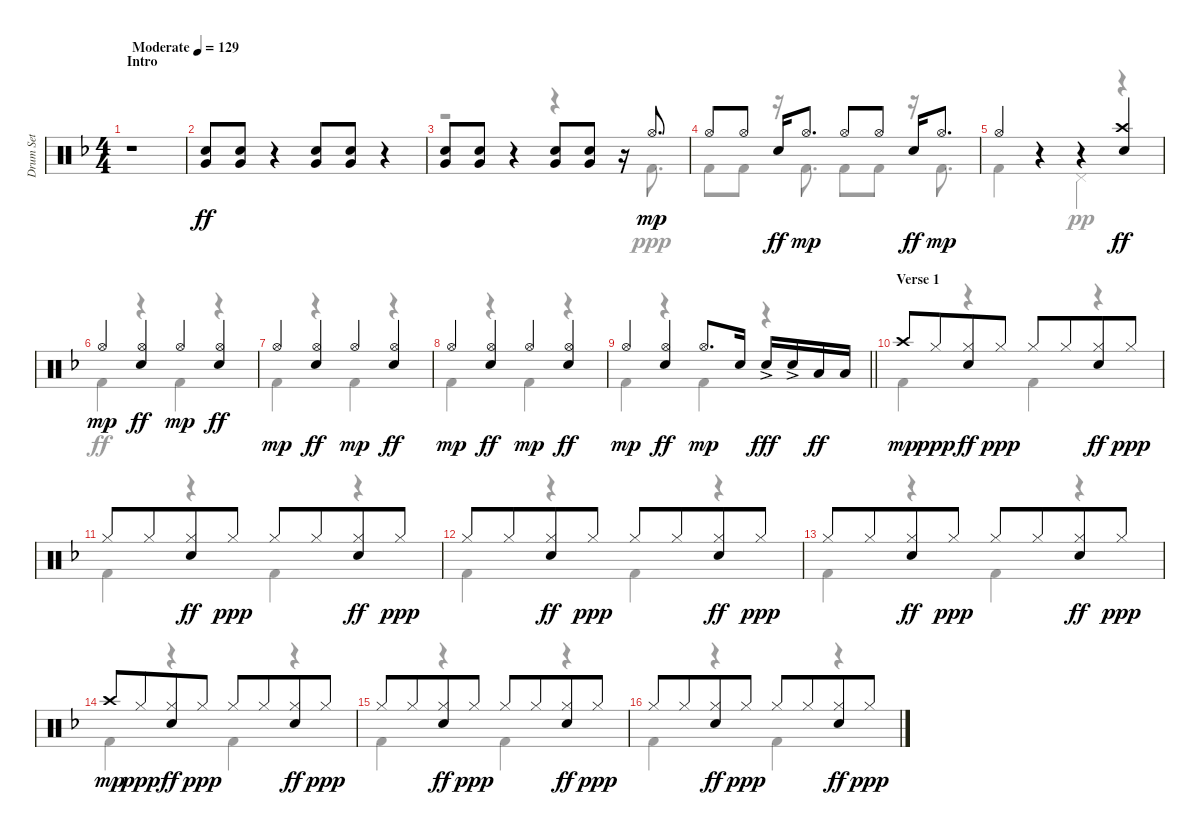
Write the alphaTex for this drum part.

\track ("Drum Set" "Drum Set") {instrument percussion}
\staff {score}
\articulation defaults
\voice
\ts (4 4)
\section ("" "Intro")
\tempo (129 "Moderate")
\clef neutral
\ks dminor
r.1{dy ff} |
("Electric Snare (hit)" "Very Low Tom (hit)").8{beam Up} ("Electric Snare (hit)" "Very Low Tom (hit)").8{beam Up} r.4 ("Electric Snare (hit)" "Very Low Tom (hit)").8{beam Up} ("Electric Snare (hit)" "Very Low Tom (hit)").8{beam Up} r.4 |
("Electric Snare (hit)" "Very Low Tom (hit)").8 ("Electric Snare (hit)" "Very Low Tom (hit)").8 r.4 ("Electric Snare (hit)" "Very Low Tom (hit)").8 ("Electric Snare (hit)" "Very Low Tom (hit)").8 r.16 "Hi-Hat (open)".8{d dy mp} |
"Hi-Hat (open)".8 "Hi-Hat (open)".8 "Electric Snare (hit)".16{dy ff} "Hi-Hat (open)".8{d dy mp} "Hi-Hat (open)".8 "Hi-Hat (open)".8 "Electric Snare (hit)".16{dy ff} "Hi-Hat (open)".8{d dy mp} |
"Hi-Hat (open)".4 r.4 r.4 ("Crash high (hit)" "Electric Snare (hit)").4{dy ff} |
"Hi-Hat (open)".4{dy mp} ("Hi-Hat (open)" "Electric Snare (hit)").4{dy ff} "Hi-Hat (open)".4{dy mp} ("Hi-Hat (open)" "Electric Snare (hit)").4{dy ff} |
"Hi-Hat (open)".4{dy mp} ("Hi-Hat (open)" "Electric Snare (hit)").4{dy ff} "Hi-Hat (open)".4{dy mp} ("Hi-Hat (open)" "Electric Snare (hit)").4{dy ff} |
"Hi-Hat (open)".4{dy mp} ("Hi-Hat (open)" "Electric Snare (hit)").4{dy ff} "Hi-Hat (open)".4{dy mp} ("Hi-Hat (open)" "Electric Snare (hit)").4{dy ff} |
\barLineRight lightlight "Hi-Hat (open)".4{dy mp}
("Hi-Hat (open)" "Electric Snare (hit)").4{dy ff} "Hi-Hat (open)".8{d dy mp} "Electric Snare (hit)".16 "Electric Snare (hit)"{ac}.16{dy fff} "Electric Snare (hit)"{ac}.16 "Low Tom (hit)".16{dy ff} "Low Tom (hit)".16 |
\section ("" "Verse 1")
"Crash high (hit)".8{dy mp} "Hi-Hat (closed)".8{dy ppp beam merge} ("Hi-Hat (closed)" "Electric Snare (hit)").8{dy ff} "Hi-Hat (closed)".8{dy ppp} "Hi-Hat (closed)".8 "Hi-Hat (closed)".8{beam merge} ("Hi-Hat (closed)" "Electric Snare (hit)").8{dy ff} "Hi-Hat (closed)".8{dy ppp} |
"Hi-Hat (closed)".8 "Hi-Hat (closed)".8{beam merge} ("Hi-Hat (closed)" "Electric Snare (hit)").8{dy ff} "Hi-Hat (closed)".8{dy ppp} "Hi-Hat (closed)".8 "Hi-Hat (closed)".8{beam merge} ("Hi-Hat (closed)" "Electric Snare (hit)").8{dy ff} "Hi-Hat (closed)".8{dy ppp} |
"Hi-Hat (closed)".8 "Hi-Hat (closed)".8{beam merge} ("Hi-Hat (closed)" "Electric Snare (hit)").8{dy ff} "Hi-Hat (closed)".8{dy ppp} "Hi-Hat (closed)".8 "Hi-Hat (closed)".8{beam merge} ("Hi-Hat (closed)" "Electric Snare (hit)").8{dy ff} "Hi-Hat (closed)".8{dy ppp} |
"Hi-Hat (closed)".8 "Hi-Hat (closed)".8{beam merge} ("Hi-Hat (closed)" "Electric Snare (hit)").8{dy ff} "Hi-Hat (closed)".8{dy ppp} "Hi-Hat (closed)".8 "Hi-Hat (closed)".8{beam merge} ("Hi-Hat (closed)" "Electric Snare (hit)").8{dy ff} "Hi-Hat (closed)".8{dy ppp} |
"Crash high (hit)".8{dy mp} "Hi-Hat (closed)".8{dy ppp beam merge} ("Hi-Hat (closed)" "Electric Snare (hit)").8{dy ff} "Hi-Hat (closed)".8{dy ppp} "Hi-Hat (closed)".8 "Hi-Hat (closed)".8{beam merge} ("Hi-Hat (closed)" "Electric Snare (hit)").8{dy ff} "Hi-Hat (closed)".8{dy ppp} |
"Hi-Hat (closed)".8 "Hi-Hat (closed)".8{beam merge} ("Hi-Hat (closed)" "Electric Snare (hit)").8{dy ff} "Hi-Hat (closed)".8{dy ppp} "Hi-Hat (closed)".8 "Hi-Hat (closed)".8{beam merge} ("Hi-Hat (closed)" "Electric Snare (hit)").8{dy ff} "Hi-Hat (closed)".8{dy ppp} |
"Hi-Hat (closed)".8 "Hi-Hat (closed)".8{beam merge} ("Hi-Hat (closed)" "Electric Snare (hit)").8{dy ff} "Hi-Hat (closed)".8{dy ppp} "Hi-Hat (closed)".8 "Hi-Hat (closed)".8{beam merge} ("Hi-Hat (closed)" "Electric Snare (hit)").8{dy ff} "Hi-Hat (closed)".8{dy ppp}
\voice
\clef neutral
\ottava regular
\simile none
\ks dminor
|
|
r.2 r.4 r.16 "Kick (hit) 2".8{d} |
"Kick (hit) 2".8 "Kick (hit) 2".8 r.16 "Kick (hit) 2".8{d} "Kick (hit) 2".8 "Kick (hit) 2".8 r.16 "Kick (hit) 2".8{d} |
"Kick (hit) 2".4 r.4 "Pedal Hi-Hat (hit)".4{dy pp} r.4 |
"Kick (hit) 2".4{dy ff} r.4 "Kick (hit) 2".4 r.4 |
"Kick (hit) 2".4 r.4 "Kick (hit) 2".4 r.4 |
"Kick (hit) 2".4 r.4 "Kick (hit) 2".4 r.4 |
\barLineRight lightlight "Kick (hit) 2".4
r.4 "Kick (hit) 2".4 r.4 |
"Kick (hit) 2".4 r.4 "Kick (hit) 2".4 r.4 |
"Kick (hit) 2".4 r.4 "Kick (hit) 2".4 r.4 |
"Kick (hit) 2".4 r.4 "Kick (hit) 2".4 r.4 |
"Kick (hit) 2".4 r.4 "Kick (hit) 2".4 r.4 |
"Kick (hit) 2".4 r.4 "Kick (hit) 2".4 r.4 |
"Kick (hit) 2".4 r.4 "Kick (hit) 2".4 r.4 |
"Kick (hit) 2".4 r.4 "Kick (hit) 2".4 r.4
